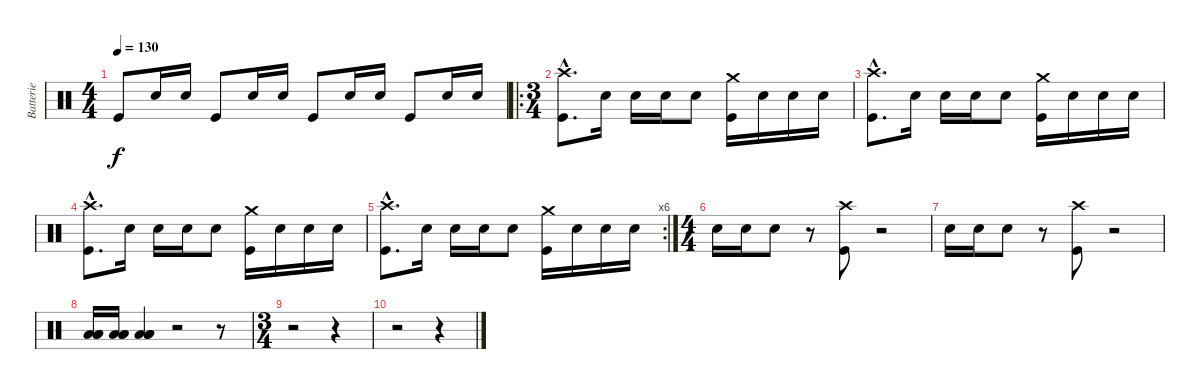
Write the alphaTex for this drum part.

\track ("Batterie" "Batterie") {instrument percussion}
\staff {score}
\articulation defaults
\ts (4 4)
\tempo 130
\clef neutral
\ks c "Kick (hit)".8{dy f} "Snare (hit) 2".16 "Snare (hit) 2".16 "Kick (hit)".8 "Snare (hit) 2".16 "Snare (hit) 2".16 "Kick (hit)".8 "Snare (hit) 2".16 "Snare (hit) 2".16 "Kick (hit)".8 "Snare (hit) 2".16 "Snare (hit) 2".16
|
\ro
\ts (3 4)
("Crash high (hit)"{hac} "Kick (hit)"{hac}).8{d} "Snare (hit) 2".16 "Snare (hit) 2".16 "Snare (hit) 2".16 "Snare (hit) 2".8 ("Crash medium (hit)" "Kick (hit)").16 "Snare (hit) 2".16 "Snare (hit) 2".16 "Snare (hit) 2".16 |
("Crash high (hit)"{hac} "Kick (hit)"{hac}).8{d} "Snare (hit) 2".16 "Snare (hit) 2".16 "Snare (hit) 2".16 "Snare (hit) 2".8 ("Crash medium (hit)" "Kick (hit)").16 "Snare (hit) 2".16 "Snare (hit) 2".16 "Snare (hit) 2".16 |
("Crash high (hit)"{hac} "Kick (hit)"{hac}).8{d} "Snare (hit) 2".16 "Snare (hit) 2".16 "Snare (hit) 2".16 "Snare (hit) 2".8 ("Crash medium (hit)" "Kick (hit)").16 "Snare (hit) 2".16 "Snare (hit) 2".16 "Snare (hit) 2".16 |
\rc 6
("Crash high (hit)"{hac} "Kick (hit)"{hac}).8{d} "Snare (hit) 2".16 "Snare (hit) 2".16 "Snare (hit) 2".16 "Snare (hit) 2".8 ("Crash medium (hit)" "Kick (hit)").16 "Snare (hit) 2".16 "Snare (hit) 2".16 "Snare (hit) 2".16 |
\ts (4 4)
"Snare (hit) 2".16 "Snare (hit) 2".16 "Snare (hit) 2".8 r.8 ("Crash high (hit)" "Kick (hit)").8 r.2 |
"Snare (hit) 2".16 "Snare (hit) 2".16 "Snare (hit) 2".8 r.8 ("Crash high (hit)" "Kick (hit)").8 r.2 |
("Low Tom (hit)" "Low Tom (hit)" "Low Tom (hit)").16 ("Low Tom (hit)" "Low Tom (hit)" "Low Tom (hit)").16 ("Low Tom (hit)" "Low Tom (hit)" "Low Tom (hit)").4 r.2 r.8 |
\ts (3 4)
r.2 r.4 |
r.2 r.4
